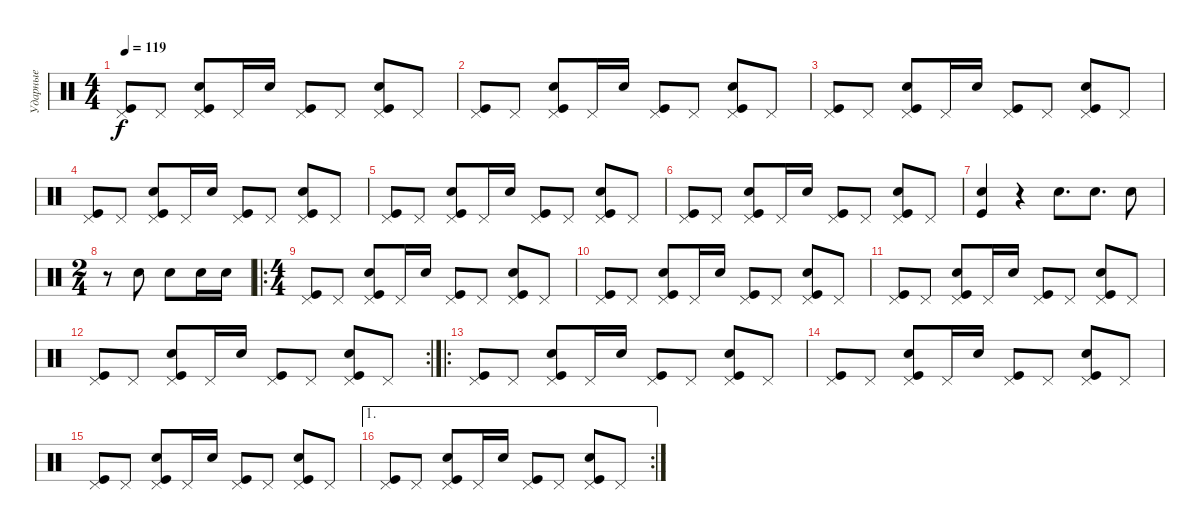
\track ("Ударные" "Ударные") {instrument percussion}
\staff {score}
\articulation defaults
\ts (4 4)
\tempo 119
\clef neutral
\ks c
("Kick (hit)" "Pedal Hi-Hat (hit)").8{dy f} "Pedal Hi-Hat (hit)".8 ("Kick (hit)" "Electric Snare (hit)" "Pedal Hi-Hat (hit)").8 "Pedal Hi-Hat (hit)".16 "Electric Snare (hit)".16 ("Kick (hit)" "Pedal Hi-Hat (hit)").8 "Pedal Hi-Hat (hit)".8 ("Kick (hit)" "Electric Snare (hit)" "Pedal Hi-Hat (hit)").8 "Pedal Hi-Hat (hit)".8 |
("Kick (hit)" "Pedal Hi-Hat (hit)").8 "Pedal Hi-Hat (hit)".8 ("Kick (hit)" "Electric Snare (hit)" "Pedal Hi-Hat (hit)").8 "Pedal Hi-Hat (hit)".16 "Electric Snare (hit)".16 ("Kick (hit)" "Pedal Hi-Hat (hit)").8 "Pedal Hi-Hat (hit)".8 ("Kick (hit)" "Electric Snare (hit)" "Pedal Hi-Hat (hit)").8 "Pedal Hi-Hat (hit)".8 |
("Kick (hit)" "Pedal Hi-Hat (hit)").8 "Pedal Hi-Hat (hit)".8 ("Kick (hit)" "Electric Snare (hit)" "Pedal Hi-Hat (hit)").8 "Pedal Hi-Hat (hit)".16 "Electric Snare (hit)".16 ("Kick (hit)" "Pedal Hi-Hat (hit)").8 "Pedal Hi-Hat (hit)".8 ("Kick (hit)" "Electric Snare (hit)" "Pedal Hi-Hat (hit)").8 "Pedal Hi-Hat (hit)".8 |
("Kick (hit)" "Pedal Hi-Hat (hit)").8 "Pedal Hi-Hat (hit)".8 ("Kick (hit)" "Electric Snare (hit)" "Pedal Hi-Hat (hit)").8 "Pedal Hi-Hat (hit)".16 "Electric Snare (hit)".16 ("Kick (hit)" "Pedal Hi-Hat (hit)").8 "Pedal Hi-Hat (hit)".8 ("Kick (hit)" "Electric Snare (hit)" "Pedal Hi-Hat (hit)").8 "Pedal Hi-Hat (hit)".8 |
("Kick (hit)" "Pedal Hi-Hat (hit)").8 "Pedal Hi-Hat (hit)".8 ("Kick (hit)" "Electric Snare (hit)" "Pedal Hi-Hat (hit)").8 "Pedal Hi-Hat (hit)".16 "Electric Snare (hit)".16 ("Kick (hit)" "Pedal Hi-Hat (hit)").8 "Pedal Hi-Hat (hit)".8 ("Kick (hit)" "Electric Snare (hit)" "Pedal Hi-Hat (hit)").8 "Pedal Hi-Hat (hit)".8 |
("Kick (hit)" "Pedal Hi-Hat (hit)").8 "Pedal Hi-Hat (hit)".8 ("Kick (hit)" "Electric Snare (hit)" "Pedal Hi-Hat (hit)").8 "Pedal Hi-Hat (hit)".16 "Electric Snare (hit)".16 ("Kick (hit)" "Pedal Hi-Hat (hit)").8 "Pedal Hi-Hat (hit)".8 ("Kick (hit)" "Electric Snare (hit)" "Pedal Hi-Hat (hit)").8 "Pedal Hi-Hat (hit)".8 |
("Kick (hit)" "Electric Snare (hit)").4 r.4 "Snare (hit) 2".8{d} "Snare (hit) 2".8{d} "Snare (hit) 2".8 |
\ts (2 4)
r.8 "Electric Snare (hit)".8 "Electric Snare (hit)".8 "Electric Snare (hit)".16 "Electric Snare (hit)".16 |
\ro
\ts (4 4)
("Kick (hit)" "Pedal Hi-Hat (hit)").8 "Pedal Hi-Hat (hit)".8 ("Kick (hit)" "Electric Snare (hit)" "Pedal Hi-Hat (hit)").8 "Pedal Hi-Hat (hit)".16 "Electric Snare (hit)".16 ("Kick (hit)" "Pedal Hi-Hat (hit)").8 "Pedal Hi-Hat (hit)".8 ("Kick (hit)" "Electric Snare (hit)" "Pedal Hi-Hat (hit)").8 "Pedal Hi-Hat (hit)".8 |
("Kick (hit)" "Pedal Hi-Hat (hit)").8 "Pedal Hi-Hat (hit)".8 ("Kick (hit)" "Electric Snare (hit)" "Pedal Hi-Hat (hit)").8 "Pedal Hi-Hat (hit)".16 "Electric Snare (hit)".16 ("Kick (hit)" "Pedal Hi-Hat (hit)").8 "Pedal Hi-Hat (hit)".8 ("Kick (hit)" "Electric Snare (hit)" "Pedal Hi-Hat (hit)").8 "Pedal Hi-Hat (hit)".8 |
("Kick (hit)" "Pedal Hi-Hat (hit)").8 "Pedal Hi-Hat (hit)".8 ("Kick (hit)" "Electric Snare (hit)" "Pedal Hi-Hat (hit)").8 "Pedal Hi-Hat (hit)".16 "Electric Snare (hit)".16 ("Kick (hit)" "Pedal Hi-Hat (hit)").8 "Pedal Hi-Hat (hit)".8 ("Kick (hit)" "Electric Snare (hit)" "Pedal Hi-Hat (hit)").8 "Pedal Hi-Hat (hit)".8 |
\rc 2
("Kick (hit)" "Pedal Hi-Hat (hit)").8 "Pedal Hi-Hat (hit)".8 ("Kick (hit)" "Electric Snare (hit)" "Pedal Hi-Hat (hit)").8 "Pedal Hi-Hat (hit)".16 "Electric Snare (hit)".16 ("Kick (hit)" "Pedal Hi-Hat (hit)").8 "Pedal Hi-Hat (hit)".8 ("Kick (hit)" "Electric Snare (hit)" "Pedal Hi-Hat (hit)").8 "Pedal Hi-Hat (hit)".8 |
\ro
("Kick (hit)" "Pedal Hi-Hat (hit)").8 "Pedal Hi-Hat (hit)".8 ("Kick (hit)" "Electric Snare (hit)" "Pedal Hi-Hat (hit)").8 "Pedal Hi-Hat (hit)".16 "Electric Snare (hit)".16 ("Kick (hit)" "Pedal Hi-Hat (hit)").8 "Pedal Hi-Hat (hit)".8 ("Kick (hit)" "Electric Snare (hit)" "Pedal Hi-Hat (hit)").8 "Pedal Hi-Hat (hit)".8 |
("Kick (hit)" "Pedal Hi-Hat (hit)").8 "Pedal Hi-Hat (hit)".8 ("Kick (hit)" "Electric Snare (hit)" "Pedal Hi-Hat (hit)").8 "Pedal Hi-Hat (hit)".16 "Electric Snare (hit)".16 ("Kick (hit)" "Pedal Hi-Hat (hit)").8 "Pedal Hi-Hat (hit)".8 ("Kick (hit)" "Electric Snare (hit)" "Pedal Hi-Hat (hit)").8 "Pedal Hi-Hat (hit)".8 |
("Kick (hit)" "Pedal Hi-Hat (hit)").8 "Pedal Hi-Hat (hit)".8 ("Kick (hit)" "Electric Snare (hit)" "Pedal Hi-Hat (hit)").8 "Pedal Hi-Hat (hit)".16 "Electric Snare (hit)".16 ("Kick (hit)" "Pedal Hi-Hat (hit)").8 "Pedal Hi-Hat (hit)".8 ("Kick (hit)" "Electric Snare (hit)" "Pedal Hi-Hat (hit)").8 "Pedal Hi-Hat (hit)".8 |
\ae 1
\rc 2
("Kick (hit)" "Pedal Hi-Hat (hit)").8 "Pedal Hi-Hat (hit)".8 ("Kick (hit)" "Electric Snare (hit)" "Pedal Hi-Hat (hit)").8 "Pedal Hi-Hat (hit)".16 "Electric Snare (hit)".16 ("Kick (hit)" "Pedal Hi-Hat (hit)").8 "Pedal Hi-Hat (hit)".8 ("Kick (hit)" "Electric Snare (hit)" "Pedal Hi-Hat (hit)").8 "Pedal Hi-Hat (hit)".8
